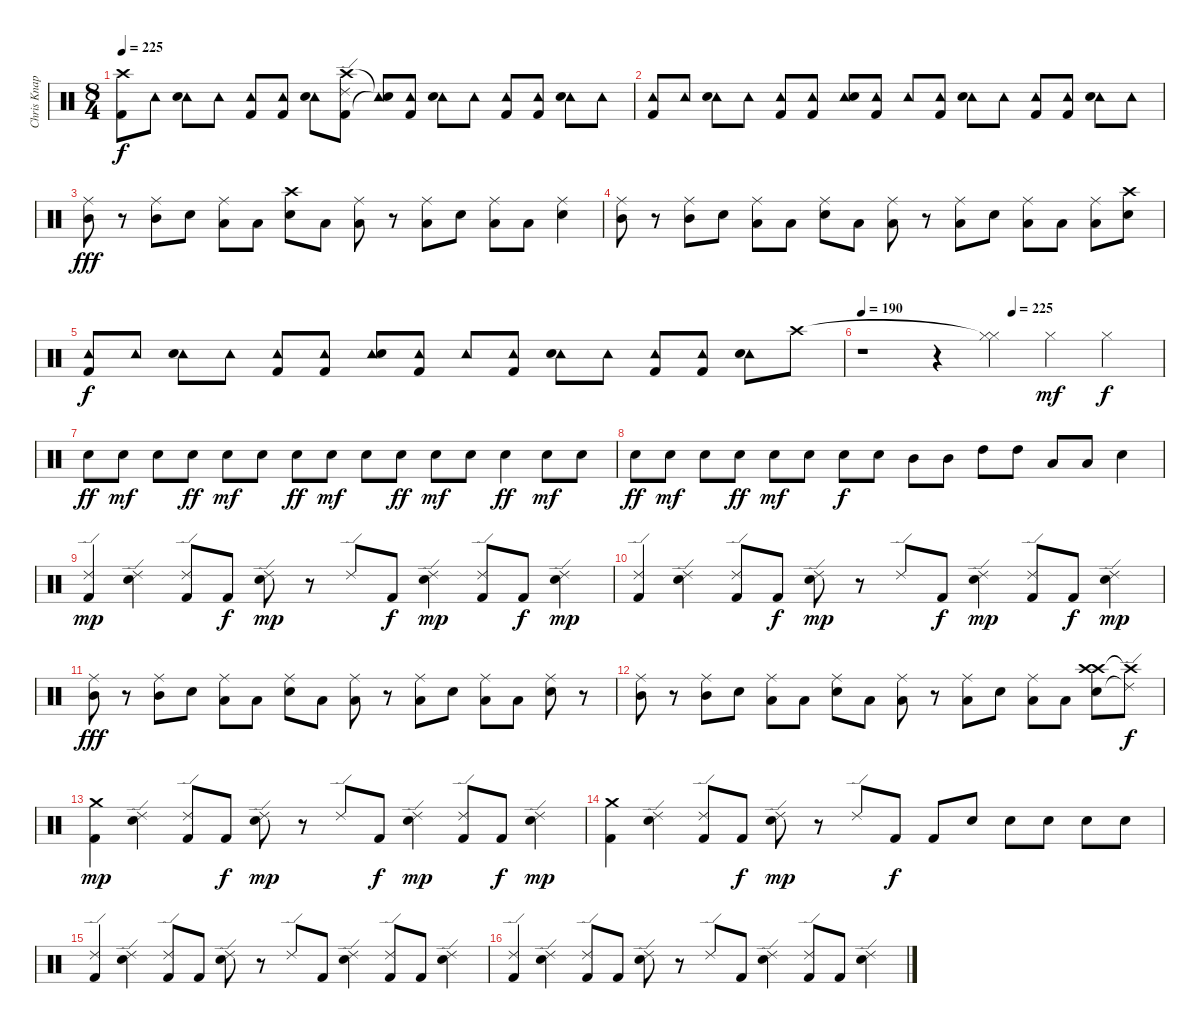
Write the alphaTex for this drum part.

\track ("Chris Knapp" "Chris Knap") {instrument percussion}
\staff {score}
\articulation defaults
\ts (8 4)
\tempo 225
\clef neutral
\ks c
("Crash high (hit)" "Kick (hit) 2").8{dy f} "Tambourine (hit)".8 ("Tambourine (hit)" "Electric Snare (hit)").8 "Tambourine (hit)".8 ("Tambourine (hit)" "Kick (hit) 2").8 ("Tambourine (hit)" "Kick (hit) 2").8 ("Tambourine (hit)" "Electric Snare (hit)").8 ("Crash high (hit)" "Kick (hit) 2" "Ride (edge) 2").8 ("Tambourine (hit)"{t} "Snare (hit)"{t}).8 ("Tambourine (hit)" "Kick (hit) 2").8 ("Tambourine (hit)" "Electric Snare (hit)").8 "Tambourine (hit)".8 ("Tambourine (hit)" "Kick (hit) 2").8 ("Tambourine (hit)" "Kick (hit) 2").8 ("Tambourine (hit)" "Electric Snare (hit)").8 "Tambourine (hit)".8 |
("Tambourine (hit)" "Kick (hit) 2").8 "Tambourine (hit)".8 ("Tambourine (hit)" "Electric Snare (hit)").8 "Tambourine (hit)".8 ("Tambourine (hit)" "Kick (hit) 2").8 ("Tambourine (hit)" "Kick (hit) 2").8 ("Tambourine (hit)" "Electric Snare (hit)").8 ("Tambourine (hit)" "Kick (hit) 2").8 "Tambourine (hit)".8 ("Tambourine (hit)" "Kick (hit) 2").8 ("Tambourine (hit)" "Electric Snare (hit)").8 "Tambourine (hit)".8 ("Tambourine (hit)" "Kick (hit) 2").8 ("Tambourine (hit)" "Kick (hit) 2").8 ("Tambourine (hit)" "Electric Snare (hit)").8 "Tambourine (hit)".8 |
("Ride (middle)" "Mid Tom (hit)").8{dy fff} r.8 ("Ride (middle)" "Mid Tom (hit)").8 "Electric Snare (hit)".8 ("Ride (middle)" "Low Floor Tom (hit)").8 "Low Floor Tom (hit)".8 ("Crash high (hit)" "Electric Snare (hit)").8 "Low Floor Tom (hit)".8 ("Ride (middle)" "Low Floor Tom (hit)").8 r.8 ("Ride (middle)" "Low Floor Tom (hit)").8 "Electric Snare (hit)".8 ("Ride (middle)" "Low Floor Tom (hit)").8 "Low Floor Tom (hit)".8 ("Ride (middle)" "Electric Snare (hit)").4 |
("Ride (middle)" "Mid Tom (hit)").8 r.8 ("Ride (middle)" "Mid Tom (hit)").8 "Electric Snare (hit)".8 ("Ride (middle)" "Low Floor Tom (hit)").8 "Low Floor Tom (hit)".8 ("Ride (middle)" "Electric Snare (hit)").8 "Low Floor Tom (hit)".8 ("Ride (middle)" "Low Floor Tom (hit)").8 r.8 ("Ride (middle)" "Low Floor Tom (hit)").8 "Electric Snare (hit)".8 ("Ride (middle)" "Low Floor Tom (hit)").8 "Low Floor Tom (hit)".8 ("Ride (middle)" "Low Floor Tom (hit)").8 ("Electric Snare (hit)" "Crash high (hit)").8 |
("Tambourine (hit)" "Kick (hit) 2").8{dy f} "Tambourine (hit)".8 ("Tambourine (hit)" "Electric Snare (hit)").8 "Tambourine (hit)".8 ("Tambourine (hit)" "Kick (hit) 2").8 ("Tambourine (hit)" "Kick (hit) 2").8 ("Tambourine (hit)" "Electric Snare (hit)").8 ("Tambourine (hit)" "Kick (hit) 2").8 "Tambourine (hit)".8 ("Tambourine (hit)" "Kick (hit) 2").8 ("Tambourine (hit)" "Electric Snare (hit)").8 "Tambourine (hit)".8 ("Tambourine (hit)" "Kick (hit) 2").8 ("Tambourine (hit)" "Kick (hit) 2").8 ("Tambourine (hit)" "Electric Snare (hit)").8 "Crash high (hit)".8 |
\tempo 190
\tempo (225 0.5)
r.1 r.4 ("Hi-Hat (closed)"{t} "Hi-Hat (closed)").4 "Hi-Hat (closed)".4{dy mf} "Hi-Hat (closed)".4{dy f} |
"Electric Snare (hit)".8{dy ff} "Electric Snare (hit)".8{dy mf} "Electric Snare (hit)".8 "Electric Snare (hit)".8{dy ff} "Electric Snare (hit)".8{dy mf} "Electric Snare (hit)".8 "Electric Snare (hit)".8{dy ff} "Electric Snare (hit)".8{dy mf} "Electric Snare (hit)".8 "Electric Snare (hit)".8{dy ff} "Electric Snare (hit)".8{dy mf} "Electric Snare (hit)".8 "Electric Snare (hit)".4{dy ff} "Electric Snare (hit)".8{dy mf} "Electric Snare (hit)".8 |
"Electric Snare (hit)".8{dy ff} "Electric Snare (hit)".8{dy mf} "Electric Snare (hit)".8 "Electric Snare (hit)".8{dy ff} "Electric Snare (hit)".8{dy mf} "Electric Snare (hit)".8 "Electric Snare (hit)".8{dy f} "Electric Snare (hit)".8 "Mid Tom (hit)".8 "Mid Tom (hit)".8 "High Tom (hit)".8 "High Tom (hit)".8 "Low Floor Tom (hit)".8 "Low Floor Tom (hit)".8 "Electric Snare (hit)".4 |
("Ride (edge) 2" "Kick (hit) 2").4{dy mp} ("Ride (edge) 2" "Electric Snare (hit)").4 ("Ride (edge) 2" "Kick (hit) 2").8 "Kick (hit) 2".8{dy f} ("Ride (edge) 2" "Electric Snare (hit)").8{dy mp} r.8 "Ride (edge) 2".8 "Kick (hit) 2".8{dy f} ("Ride (edge) 2" "Electric Snare (hit)").4{dy mp} ("Ride (edge) 2" "Kick (hit) 2").8 "Kick (hit) 2".8{dy f} ("Ride (edge) 2" "Electric Snare (hit)").4{dy mp} |
("Ride (edge) 2" "Kick (hit) 2").4 ("Ride (edge) 2" "Electric Snare (hit)").4 ("Ride (edge) 2" "Kick (hit) 2").8 "Kick (hit) 2".8{dy f} ("Ride (edge) 2" "Electric Snare (hit)").8{dy mp} r.8 "Ride (edge) 2".8 "Kick (hit) 2".8{dy f} ("Ride (edge) 2" "Electric Snare (hit)").4{dy mp} ("Ride (edge) 2" "Kick (hit) 2").8 "Kick (hit) 2".8{dy f} ("Ride (edge) 2" "Electric Snare (hit)").4{dy mp} |
("Ride (middle)" "Mid Tom (hit)").8{dy fff} r.8 ("Ride (middle)" "Mid Tom (hit)").8 "Electric Snare (hit)".8 ("Ride (middle)" "Low Floor Tom (hit)").8 "Low Floor Tom (hit)".8 ("Ride (middle)" "Electric Snare (hit)").8 "Low Floor Tom (hit)".8 ("Ride (middle)" "Low Floor Tom (hit)").8 r.8 ("Ride (middle)" "Low Floor Tom (hit)").8 "Electric Snare (hit)".8 ("Ride (middle)" "Low Floor Tom (hit)").8 "Low Floor Tom (hit)".8 ("Ride (middle)" "Electric Snare (hit)").8 r.8 |
("Ride (middle)" "Mid Tom (hit)").8 r.8 ("Ride (middle)" "Mid Tom (hit)").8 "Electric Snare (hit)".8 ("Ride (middle)" "Low Floor Tom (hit)").8 "Low Floor Tom (hit)".8 ("Ride (middle)" "Electric Snare (hit)").8 "Low Floor Tom (hit)".8 ("Ride (middle)" "Low Floor Tom (hit)").8 r.8 ("Ride (middle)" "Low Floor Tom (hit)").8 "Electric Snare (hit)".8 ("Ride (middle)" "Low Floor Tom (hit)").8 "Low Floor Tom (hit)".8 ("Crash high (hit)" "Electric Snare (hit)" "Crash high (hit)").8 ("Crash high (hit)"{t} "Ride (edge) 2"{t}).8{dy f} |
("Crash medium (hit)" "Kick (hit) 2").4{dy mp} ("Ride (edge) 2" "Electric Snare (hit)").4 ("Ride (edge) 2" "Kick (hit) 2").8 "Kick (hit) 2".8{dy f} ("Ride (edge) 2" "Electric Snare (hit)").8{dy mp} r.8 "Ride (edge) 2".8 "Kick (hit) 2".8{dy f} ("Ride (edge) 2" "Electric Snare (hit)").4{dy mp} ("Ride (edge) 2" "Kick (hit) 2").8 "Kick (hit) 2".8{dy f} ("Ride (edge) 2" "Electric Snare (hit)").4{dy mp} |
("Crash medium (hit)" "Kick (hit) 2").4 ("Ride (edge) 2" "Electric Snare (hit)").4 ("Ride (edge) 2" "Kick (hit) 2").8 "Kick (hit) 2".8{dy f} ("Ride (edge) 2" "Electric Snare (hit)").8{dy mp} r.8 "Ride (edge) 2".8 "Kick (hit) 2".8{dy f} "Kick (hit) 2".8 "Electric Snare (hit)".8 "Electric Snare (hit)".8 "Electric Snare (hit)".8 "Electric Snare (hit)".8 "Electric Snare (hit)".8 |
("Ride (edge) 2" "Kick (hit) 2").4 ("Ride (edge) 2" "Electric Snare (hit)").4 ("Ride (edge) 2" "Kick (hit) 2").8 "Kick (hit) 2".8 ("Ride (edge) 2" "Electric Snare (hit)").8 r.8 "Ride (edge) 2".8 "Kick (hit) 2".8 ("Ride (edge) 2" "Electric Snare (hit)").4 ("Ride (edge) 2" "Kick (hit) 2").8 "Kick (hit) 2".8 ("Ride (edge) 2" "Electric Snare (hit)").4 |
("Ride (edge) 2" "Kick (hit) 2").4 ("Ride (edge) 2" "Electric Snare (hit)").4 ("Ride (edge) 2" "Kick (hit) 2").8 "Kick (hit) 2".8 ("Ride (edge) 2" "Electric Snare (hit)").8 r.8 "Ride (edge) 2".8 "Kick (hit) 2".8 ("Ride (edge) 2" "Electric Snare (hit)").4 ("Ride (edge) 2" "Kick (hit) 2").8 "Kick (hit) 2".8 ("Ride (edge) 2" "Electric Snare (hit)").4
